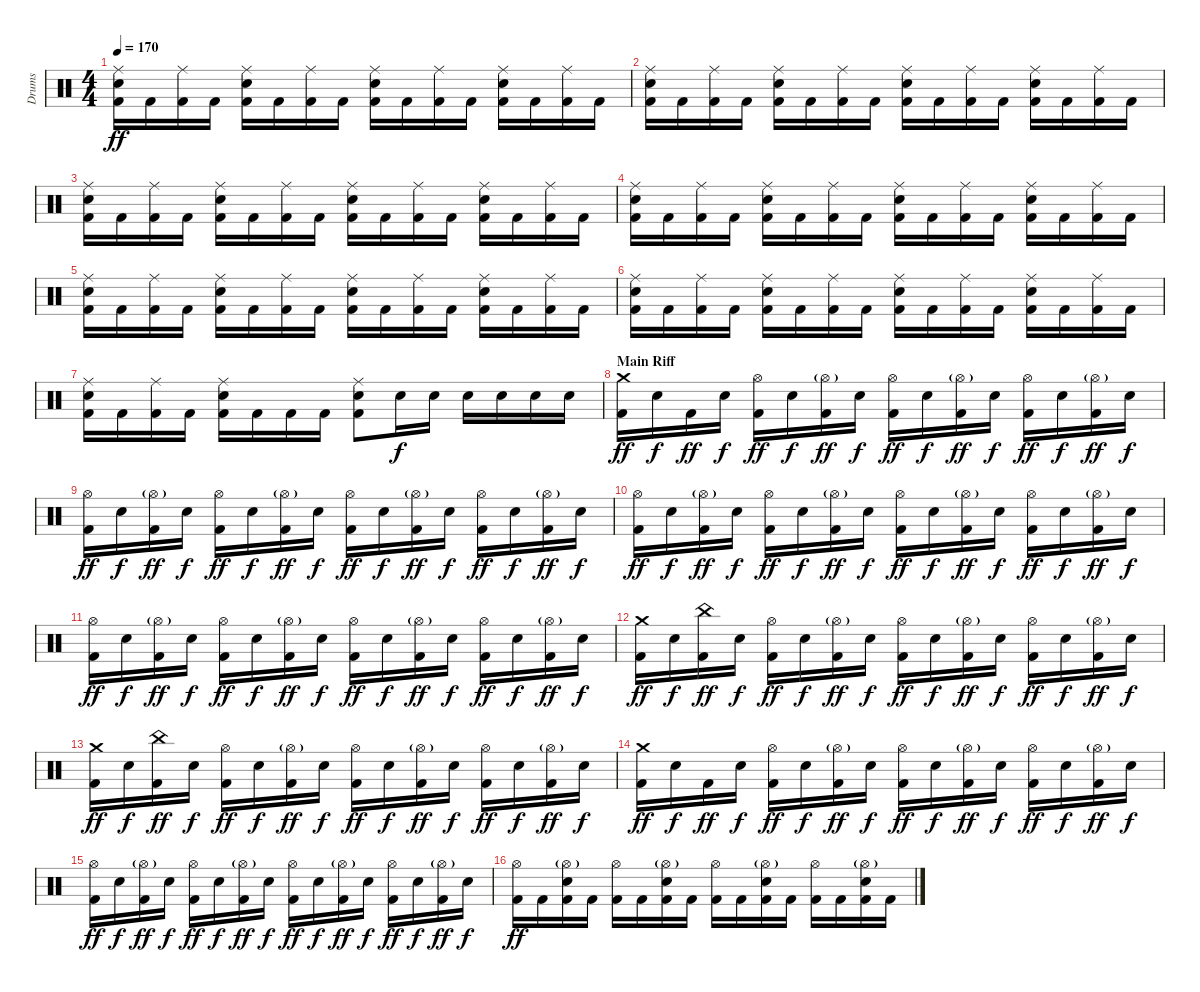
\track ("Drums" "Drums") {instrument percussion}
\staff {score}
\articulation defaults
\ts (4 4)
\tempo 170
\clef neutral
\ks c
("Ride (middle)" "Electric Snare (hit)" "Kick (hit) 2").16{dy ff} "Kick (hit) 2".16 ("Ride (middle)" "Kick (hit) 2").16 "Kick (hit) 2".16 ("Ride (middle)" "Electric Snare (hit)" "Kick (hit) 2").16 "Kick (hit) 2".16 ("Ride (middle)" "Kick (hit) 2").16 "Kick (hit) 2".16 ("Ride (middle)" "Electric Snare (hit)" "Kick (hit) 2").16 "Kick (hit) 2".16 ("Ride (middle)" "Kick (hit) 2").16 "Kick (hit) 2".16 ("Ride (middle)" "Electric Snare (hit)" "Kick (hit) 2").16 "Kick (hit) 2".16 ("Ride (middle)" "Kick (hit) 2").16 "Kick (hit) 2".16 |
("Ride (middle)" "Electric Snare (hit)" "Kick (hit) 2").16 "Kick (hit) 2".16 ("Ride (middle)" "Kick (hit) 2").16 "Kick (hit) 2".16 ("Ride (middle)" "Electric Snare (hit)" "Kick (hit) 2").16 "Kick (hit) 2".16 ("Ride (middle)" "Kick (hit) 2").16 "Kick (hit) 2".16 ("Ride (middle)" "Electric Snare (hit)" "Kick (hit) 2").16 "Kick (hit) 2".16 ("Ride (middle)" "Kick (hit) 2").16 "Kick (hit) 2".16 ("Ride (middle)" "Electric Snare (hit)" "Kick (hit) 2").16 "Kick (hit) 2".16 ("Ride (middle)" "Kick (hit) 2").16 "Kick (hit) 2".16 |
("Ride (middle)" "Electric Snare (hit)" "Kick (hit) 2").16 "Kick (hit) 2".16 ("Ride (middle)" "Kick (hit) 2").16 "Kick (hit) 2".16 ("Ride (middle)" "Electric Snare (hit)" "Kick (hit) 2").16 "Kick (hit) 2".16 ("Ride (middle)" "Kick (hit) 2").16 "Kick (hit) 2".16 ("Ride (middle)" "Electric Snare (hit)" "Kick (hit) 2").16 "Kick (hit) 2".16 ("Ride (middle)" "Kick (hit) 2").16 "Kick (hit) 2".16 ("Ride (middle)" "Electric Snare (hit)" "Kick (hit) 2").16 "Kick (hit) 2".16 ("Ride (middle)" "Kick (hit) 2").16 "Kick (hit) 2".16 |
("Ride (middle)" "Electric Snare (hit)" "Kick (hit) 2").16 "Kick (hit) 2".16 ("Ride (middle)" "Kick (hit) 2").16 "Kick (hit) 2".16 ("Ride (middle)" "Electric Snare (hit)" "Kick (hit) 2").16 "Kick (hit) 2".16 ("Ride (middle)" "Kick (hit) 2").16 "Kick (hit) 2".16 ("Ride (middle)" "Electric Snare (hit)" "Kick (hit) 2").16 "Kick (hit) 2".16 ("Ride (middle)" "Kick (hit) 2").16 "Kick (hit) 2".16 ("Ride (middle)" "Electric Snare (hit)" "Kick (hit) 2").16 "Kick (hit) 2".16 ("Ride (middle)" "Kick (hit) 2").16 "Kick (hit) 2".16 |
("Ride (middle)" "Electric Snare (hit)" "Kick (hit) 2").16 "Kick (hit) 2".16 ("Ride (middle)" "Kick (hit) 2").16 "Kick (hit) 2".16 ("Ride (middle)" "Electric Snare (hit)" "Kick (hit) 2").16 "Kick (hit) 2".16 ("Ride (middle)" "Kick (hit) 2").16 "Kick (hit) 2".16 ("Ride (middle)" "Electric Snare (hit)" "Kick (hit) 2").16 "Kick (hit) 2".16 ("Ride (middle)" "Kick (hit) 2").16 "Kick (hit) 2".16 ("Ride (middle)" "Electric Snare (hit)" "Kick (hit) 2").16 "Kick (hit) 2".16 ("Ride (middle)" "Kick (hit) 2").16 "Kick (hit) 2".16 |
("Ride (middle)" "Electric Snare (hit)" "Kick (hit) 2").16 "Kick (hit) 2".16 ("Ride (middle)" "Kick (hit) 2").16 "Kick (hit) 2".16 ("Ride (middle)" "Electric Snare (hit)" "Kick (hit) 2").16 "Kick (hit) 2".16 ("Ride (middle)" "Kick (hit) 2").16 "Kick (hit) 2".16 ("Ride (middle)" "Electric Snare (hit)" "Kick (hit) 2").16 "Kick (hit) 2".16 ("Ride (middle)" "Kick (hit) 2").16 "Kick (hit) 2".16 ("Ride (middle)" "Electric Snare (hit)" "Kick (hit) 2").16 "Kick (hit) 2".16 ("Ride (middle)" "Kick (hit) 2").16 "Kick (hit) 2".16 |
("Ride (middle)" "Electric Snare (hit)" "Kick (hit) 2").16 "Kick (hit) 2".16 ("Ride (middle)" "Kick (hit) 2").16 "Kick (hit) 2".16 ("Ride (middle)" "Electric Snare (hit)" "Kick (hit) 2").16 "Kick (hit) 2".16 "Kick (hit) 2".16 "Kick (hit) 2".16 ("Ride (middle)" "Electric Snare (hit)" "Kick (hit) 2").8 "Electric Snare (hit)".16{dy f} "Electric Snare (hit)".16 "Electric Snare (hit)".16 "Electric Snare (hit)".16 "Electric Snare (hit)".16 "Electric Snare (hit)".16 |
\section ("" "Main Riff")
("Crash medium (hit)" "Kick (hit) 2").16{dy ff} "Electric Snare (hit)".16{dy f} "Kick (hit) 2".16{dy ff} "Electric Snare (hit)".16{dy f} ("Hi-Hat (open)" "Kick (hit) 2").16{dy ff} "Electric Snare (hit)".16{dy f} ("Hi-Hat (open)"{g} "Kick (hit) 2").16{dy ff} "Electric Snare (hit)".16{dy f} ("Hi-Hat (open)" "Kick (hit) 2").16{dy ff} "Electric Snare (hit)".16{dy f} ("Hi-Hat (open)"{g} "Kick (hit) 2").16{dy ff} "Electric Snare (hit)".16{dy f} ("Hi-Hat (open)" "Kick (hit) 2").16{dy ff} "Electric Snare (hit)".16{dy f} ("Hi-Hat (open)"{g} "Kick (hit) 2").16{dy ff} "Electric Snare (hit)".16{dy f} |
("Hi-Hat (open)" "Kick (hit) 2").16{dy ff} "Electric Snare (hit)".16{dy f} ("Hi-Hat (open)"{g} "Kick (hit) 2").16{dy ff} "Electric Snare (hit)".16{dy f} ("Hi-Hat (open)" "Kick (hit) 2").16{dy ff} "Electric Snare (hit)".16{dy f} ("Hi-Hat (open)"{g} "Kick (hit) 2").16{dy ff} "Electric Snare (hit)".16{dy f} ("Hi-Hat (open)" "Kick (hit) 2").16{dy ff} "Electric Snare (hit)".16{dy f} ("Hi-Hat (open)"{g} "Kick (hit) 2").16{dy ff} "Electric Snare (hit)".16{dy f} ("Hi-Hat (open)" "Kick (hit) 2").16{dy ff} "Electric Snare (hit)".16{dy f} ("Hi-Hat (open)"{g} "Kick (hit) 2").16{dy ff} "Electric Snare (hit)".16{dy f} |
("Hi-Hat (open)" "Kick (hit) 2").16{dy ff} "Electric Snare (hit)".16{dy f} ("Hi-Hat (open)"{g} "Kick (hit) 2").16{dy ff} "Electric Snare (hit)".16{dy f} ("Hi-Hat (open)" "Kick (hit) 2").16{dy ff} "Electric Snare (hit)".16{dy f} ("Hi-Hat (open)"{g} "Kick (hit) 2").16{dy ff} "Electric Snare (hit)".16{dy f} ("Hi-Hat (open)" "Kick (hit) 2").16{dy ff} "Electric Snare (hit)".16{dy f} ("Hi-Hat (open)"{g} "Kick (hit) 2").16{dy ff} "Electric Snare (hit)".16{dy f} ("Hi-Hat (open)" "Kick (hit) 2").16{dy ff} "Electric Snare (hit)".16{dy f} ("Hi-Hat (open)"{g} "Kick (hit) 2").16{dy ff} "Electric Snare (hit)".16{dy f} |
("Hi-Hat (open)" "Kick (hit) 2").16{dy ff} "Electric Snare (hit)".16{dy f} ("Hi-Hat (open)"{g} "Kick (hit) 2").16{dy ff} "Electric Snare (hit)".16{dy f} ("Hi-Hat (open)" "Kick (hit) 2").16{dy ff} "Electric Snare (hit)".16{dy f} ("Hi-Hat (open)"{g} "Kick (hit) 2").16{dy ff} "Electric Snare (hit)".16{dy f} ("Hi-Hat (open)" "Kick (hit) 2").16{dy ff} "Electric Snare (hit)".16{dy f} ("Hi-Hat (open)"{g} "Kick (hit) 2").16{dy ff} "Electric Snare (hit)".16{dy f} ("Hi-Hat (open)" "Kick (hit) 2").16{dy ff} "Electric Snare (hit)".16{dy f} ("Hi-Hat (open)"{g} "Kick (hit) 2").16{dy ff} "Electric Snare (hit)".16{dy f} |
("Crash medium (hit)" "Kick (hit) 2").16{dy ff} "Electric Snare (hit)".16{dy f} ("China (hit)" "Kick (hit) 2").16{dy ff} "Electric Snare (hit)".16{dy f} ("Hi-Hat (open)" "Kick (hit) 2").16{dy ff} "Electric Snare (hit)".16{dy f} ("Hi-Hat (open)"{g} "Kick (hit) 2").16{dy ff} "Electric Snare (hit)".16{dy f} ("Hi-Hat (open)" "Kick (hit) 2").16{dy ff} "Electric Snare (hit)".16{dy f} ("Hi-Hat (open)"{g} "Kick (hit) 2").16{dy ff} "Electric Snare (hit)".16{dy f} ("Hi-Hat (open)" "Kick (hit) 2").16{dy ff} "Electric Snare (hit)".16{dy f} ("Hi-Hat (open)"{g} "Kick (hit) 2").16{dy ff} "Electric Snare (hit)".16{dy f} |
("Crash medium (hit)" "Kick (hit) 2").16{dy ff} "Electric Snare (hit)".16{dy f} ("China (hit)" "Kick (hit) 2").16{dy ff} "Electric Snare (hit)".16{dy f} ("Hi-Hat (open)" "Kick (hit) 2").16{dy ff} "Electric Snare (hit)".16{dy f} ("Hi-Hat (open)"{g} "Kick (hit) 2").16{dy ff} "Electric Snare (hit)".16{dy f} ("Hi-Hat (open)" "Kick (hit) 2").16{dy ff} "Electric Snare (hit)".16{dy f} ("Hi-Hat (open)"{g} "Kick (hit) 2").16{dy ff} "Electric Snare (hit)".16{dy f} ("Hi-Hat (open)" "Kick (hit) 2").16{dy ff} "Electric Snare (hit)".16{dy f} ("Hi-Hat (open)"{g} "Kick (hit) 2").16{dy ff} "Electric Snare (hit)".16{dy f} |
("Crash medium (hit)" "Kick (hit) 2").16{dy ff} "Electric Snare (hit)".16{dy f} "Kick (hit) 2".16{dy ff} "Electric Snare (hit)".16{dy f} ("Hi-Hat (open)" "Kick (hit) 2").16{dy ff} "Electric Snare (hit)".16{dy f} ("Hi-Hat (open)"{g} "Kick (hit) 2").16{dy ff} "Electric Snare (hit)".16{dy f} ("Hi-Hat (open)" "Kick (hit) 2").16{dy ff} "Electric Snare (hit)".16{dy f} ("Hi-Hat (open)"{g} "Kick (hit) 2").16{dy ff} "Electric Snare (hit)".16{dy f} ("Hi-Hat (open)" "Kick (hit) 2").16{dy ff} "Electric Snare (hit)".16{dy f} ("Hi-Hat (open)"{g} "Kick (hit) 2").16{dy ff} "Electric Snare (hit)".16{dy f} |
("Hi-Hat (open)" "Kick (hit) 2").16{dy ff} "Electric Snare (hit)".16{dy f} ("Hi-Hat (open)"{g} "Kick (hit) 2").16{dy ff} "Electric Snare (hit)".16{dy f} ("Hi-Hat (open)" "Kick (hit) 2").16{dy ff} "Electric Snare (hit)".16{dy f} ("Hi-Hat (open)"{g} "Kick (hit) 2").16{dy ff} "Electric Snare (hit)".16{dy f} ("Hi-Hat (open)" "Kick (hit) 2").16{dy ff} "Electric Snare (hit)".16{dy f} ("Hi-Hat (open)"{g} "Kick (hit) 2").16{dy ff} "Electric Snare (hit)".16{dy f} ("Hi-Hat (open)" "Kick (hit) 2").16{dy ff} "Electric Snare (hit)".16{dy f} ("Hi-Hat (open)"{g} "Kick (hit) 2").16{dy ff} "Electric Snare (hit)".16{dy f} |
("Hi-Hat (open)" "Kick (hit) 2").16{dy ff} "Kick (hit) 2".16 ("Hi-Hat (open)"{g} "Electric Snare (hit)" "Kick (hit) 2").16 "Kick (hit) 2".16 ("Hi-Hat (open)" "Kick (hit) 2").16 "Kick (hit) 2".16 ("Hi-Hat (open)"{g} "Electric Snare (hit)" "Kick (hit) 2").16 "Kick (hit) 2".16 ("Hi-Hat (open)" "Kick (hit) 2").16 "Kick (hit) 2".16 ("Hi-Hat (open)"{g} "Electric Snare (hit)" "Kick (hit) 2").16 "Kick (hit) 2".16 ("Hi-Hat (open)" "Kick (hit) 2").16 "Kick (hit) 2".16 ("Hi-Hat (open)"{g} "Electric Snare (hit)" "Kick (hit) 2").16 "Kick (hit) 2".16
